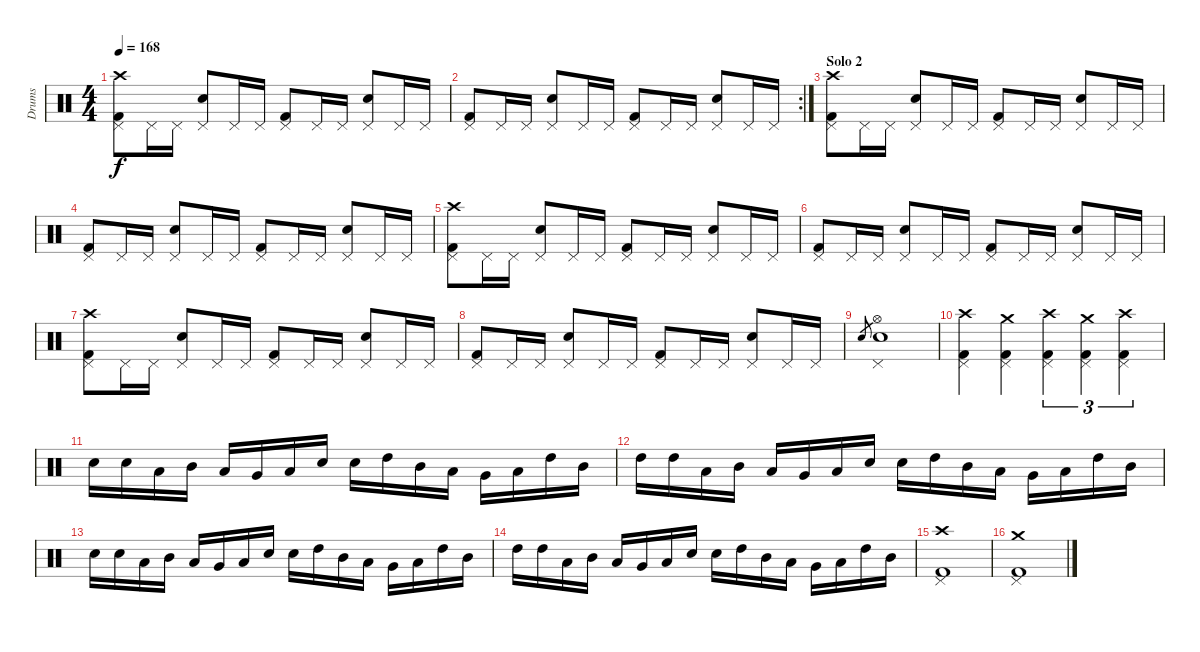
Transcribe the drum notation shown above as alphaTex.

\track ("Drums" "Drums") {instrument percussion}
\staff {score}
\articulation defaults
\ts (4 4)
\tempo 168
\clef neutral
\ks c
("Kick (hit) 2" "Pedal Hi-Hat (hit)" "Crash high (hit)").8{dy f} "Pedal Hi-Hat (hit)".16 "Pedal Hi-Hat (hit)".16 ("Snare (hit) 2" "Pedal Hi-Hat (hit)").8 "Pedal Hi-Hat (hit)".16 "Pedal Hi-Hat (hit)".16 ("Kick (hit) 2" "Pedal Hi-Hat (hit)").8 "Pedal Hi-Hat (hit)".16 "Pedal Hi-Hat (hit)".16 ("Snare (hit) 2" "Pedal Hi-Hat (hit)").8 "Pedal Hi-Hat (hit)".16 "Pedal Hi-Hat (hit)".16 |
\rc 2
("Kick (hit) 2" "Pedal Hi-Hat (hit)").8 "Pedal Hi-Hat (hit)".16 "Pedal Hi-Hat (hit)".16 ("Snare (hit) 2" "Pedal Hi-Hat (hit)").8 "Pedal Hi-Hat (hit)".16 "Pedal Hi-Hat (hit)".16 ("Kick (hit) 2" "Pedal Hi-Hat (hit)").8 "Pedal Hi-Hat (hit)".16 "Pedal Hi-Hat (hit)".16 ("Snare (hit) 2" "Pedal Hi-Hat (hit)").8 "Pedal Hi-Hat (hit)".16 "Pedal Hi-Hat (hit)".16 |
\section ("" "Solo 2")
("Kick (hit) 2" "Pedal Hi-Hat (hit)" "Crash high (hit)").8 "Pedal Hi-Hat (hit)".16 "Pedal Hi-Hat (hit)".16 ("Snare (hit) 2" "Pedal Hi-Hat (hit)").8 "Pedal Hi-Hat (hit)".16 "Pedal Hi-Hat (hit)".16 ("Kick (hit) 2" "Pedal Hi-Hat (hit)").8 "Pedal Hi-Hat (hit)".16 "Pedal Hi-Hat (hit)".16 ("Snare (hit) 2" "Pedal Hi-Hat (hit)").8 "Pedal Hi-Hat (hit)".16 "Pedal Hi-Hat (hit)".16 |
("Kick (hit) 2" "Pedal Hi-Hat (hit)").8 "Pedal Hi-Hat (hit)".16 "Pedal Hi-Hat (hit)".16 ("Snare (hit) 2" "Pedal Hi-Hat (hit)").8 "Pedal Hi-Hat (hit)".16 "Pedal Hi-Hat (hit)".16 ("Kick (hit) 2" "Pedal Hi-Hat (hit)").8 "Pedal Hi-Hat (hit)".16 "Pedal Hi-Hat (hit)".16 ("Snare (hit) 2" "Pedal Hi-Hat (hit)").8 "Pedal Hi-Hat (hit)".16 "Pedal Hi-Hat (hit)".16 |
("Kick (hit) 2" "Pedal Hi-Hat (hit)" "Crash high (hit)").8 "Pedal Hi-Hat (hit)".16 "Pedal Hi-Hat (hit)".16 ("Snare (hit) 2" "Pedal Hi-Hat (hit)").8 "Pedal Hi-Hat (hit)".16 "Pedal Hi-Hat (hit)".16 ("Kick (hit) 2" "Pedal Hi-Hat (hit)").8 "Pedal Hi-Hat (hit)".16 "Pedal Hi-Hat (hit)".16 ("Snare (hit) 2" "Pedal Hi-Hat (hit)").8 "Pedal Hi-Hat (hit)".16 "Pedal Hi-Hat (hit)".16 |
("Kick (hit) 2" "Pedal Hi-Hat (hit)").8 "Pedal Hi-Hat (hit)".16 "Pedal Hi-Hat (hit)".16 ("Snare (hit) 2" "Pedal Hi-Hat (hit)").8 "Pedal Hi-Hat (hit)".16 "Pedal Hi-Hat (hit)".16 ("Kick (hit) 2" "Pedal Hi-Hat (hit)").8 "Pedal Hi-Hat (hit)".16 "Pedal Hi-Hat (hit)".16 ("Snare (hit) 2" "Pedal Hi-Hat (hit)").8 "Pedal Hi-Hat (hit)".16 "Pedal Hi-Hat (hit)".16 |
("Kick (hit) 2" "Pedal Hi-Hat (hit)" "Crash high (hit)").8 "Pedal Hi-Hat (hit)".16 "Pedal Hi-Hat (hit)".16 ("Snare (hit) 2" "Pedal Hi-Hat (hit)").8 "Pedal Hi-Hat (hit)".16 "Pedal Hi-Hat (hit)".16 ("Kick (hit) 2" "Pedal Hi-Hat (hit)").8 "Pedal Hi-Hat (hit)".16 "Pedal Hi-Hat (hit)".16 ("Snare (hit) 2" "Pedal Hi-Hat (hit)").8 "Pedal Hi-Hat (hit)".16 "Pedal Hi-Hat (hit)".16 |
("Kick (hit) 2" "Pedal Hi-Hat (hit)").8 "Pedal Hi-Hat (hit)".16 "Pedal Hi-Hat (hit)".16 ("Snare (hit) 2" "Pedal Hi-Hat (hit)").8 "Pedal Hi-Hat (hit)".16 "Pedal Hi-Hat (hit)".16 ("Kick (hit) 2" "Pedal Hi-Hat (hit)").8 "Pedal Hi-Hat (hit)".16 "Pedal Hi-Hat (hit)".16 ("Snare (hit) 2" "Pedal Hi-Hat (hit)").8 "Pedal Hi-Hat (hit)".16 "Pedal Hi-Hat (hit)".16 |
"Snare (hit) 2".8{gr} ("Snare (hit) 2" "Pedal Hi-Hat (hit)" "Hi-Hat (open)").1 |
("Kick (hit) 2" "Pedal Hi-Hat (hit)" "Crash high (hit)").4 ("Kick (hit) 2" "Pedal Hi-Hat (hit)" "Crash medium (hit)").4 ("Kick (hit) 2" "Pedal Hi-Hat (hit)" "Crash high (hit)").4{tu (3 2)} ("Kick (hit) 2" "Pedal Hi-Hat (hit)" "Crash medium (hit)").4{tu (3 2)} ("Kick (hit) 2" "Pedal Hi-Hat (hit)" "Crash high (hit)").4{tu (3 2)} |
"Snare (hit) 2".16 "Snare (hit) 2".16 "Low Tom (hit)".16 "Mid Tom (hit)".16 "Low Tom (hit)".16 "Very Low Tom (hit)".16 "Low Floor Tom (hit)".16 "Snare (hit) 2".16 "Snare (hit) 2".16 "High Tom (hit)".16 "Mid Tom (hit)".16 "Low Tom (hit)".16 "Very Low Tom (hit)".16 "Low Floor Tom (hit)".16 "High Tom (hit)".16 "Mid Tom (hit)".16 |
"High Tom (hit)".16 "High Tom (hit)".16 "Low Tom (hit)".16 "Mid Tom (hit)".16 "Low Tom (hit)".16 "Very Low Tom (hit)".16 "Low Floor Tom (hit)".16 "Snare (hit) 2".16 "Snare (hit) 2".16 "High Tom (hit)".16 "Mid Tom (hit)".16 "Low Tom (hit)".16 "Very Low Tom (hit)".16 "Low Floor Tom (hit)".16 "High Tom (hit)".16 "Mid Tom (hit)".16 |
"Snare (hit) 2".16 "Snare (hit) 2".16 "Low Tom (hit)".16 "Mid Tom (hit)".16 "Low Tom (hit)".16 "Very Low Tom (hit)".16 "Low Floor Tom (hit)".16 "Snare (hit) 2".16 "Snare (hit) 2".16 "High Tom (hit)".16 "Mid Tom (hit)".16 "Low Tom (hit)".16 "Very Low Tom (hit)".16 "Low Floor Tom (hit)".16 "High Tom (hit)".16 "Mid Tom (hit)".16 |
"High Tom (hit)".16 "High Tom (hit)".16 "Low Tom (hit)".16 "Mid Tom (hit)".16 "Low Tom (hit)".16 "Very Low Tom (hit)".16 "Low Floor Tom (hit)".16 "Snare (hit) 2".16 "Snare (hit) 2".16 "High Tom (hit)".16 "Mid Tom (hit)".16 "Low Tom (hit)".16 "Very Low Tom (hit)".16 "Low Floor Tom (hit)".16 "High Tom (hit)".16 "Mid Tom (hit)".16 |
("Kick (hit) 2" "Pedal Hi-Hat (hit)" "Crash high (hit)").1 |
("Kick (hit) 2" "Pedal Hi-Hat (hit)" "Crash medium (hit)").1
